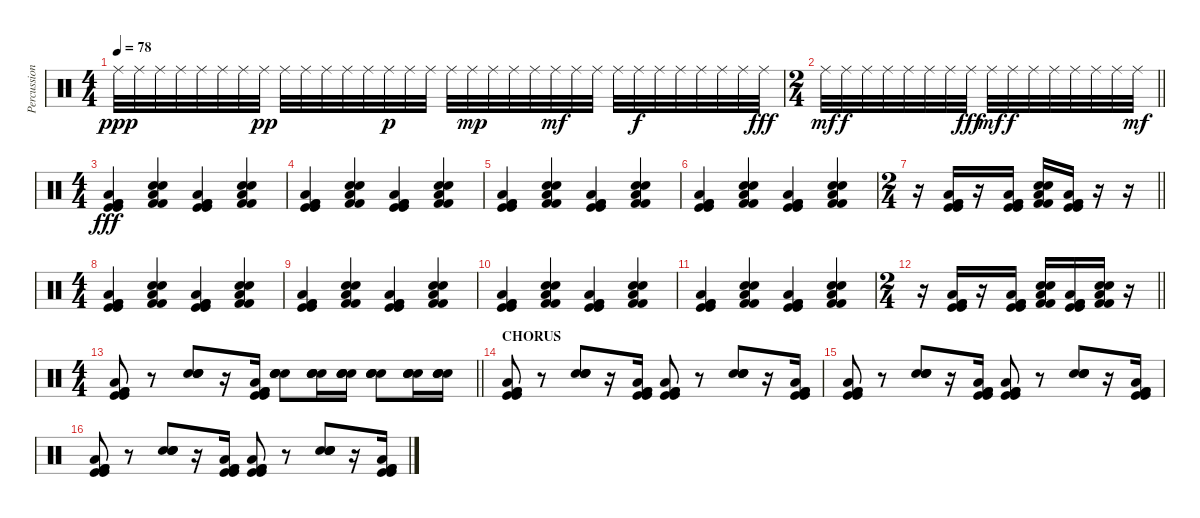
\track ("Percussion" "Percussion") {instrument percussion}
\staff {score}
\articulation defaults
\ts (4 4)
\tempo 78
\clef neutral
\ks c "Ride (middle)".32{dy ppp} "Ride (middle)".32 "Ride (middle)".32 "Ride (middle)".32 "Ride (middle)".32 "Ride (middle)".32 "Ride (middle)".32 "Ride (middle)".32{dy pp} "Ride (middle)".32 "Ride (middle)".32 "Ride (middle)".32 "Ride (middle)".32 "Ride (middle)".32 "Ride (middle)".32{dy p} "Ride (middle)".32 "Ride (middle)".32 "Ride (middle)".32 "Ride (middle)".32{dy mp} "Ride (middle)".32 "Ride (middle)".32 "Ride (middle)".32 "Ride (middle)".32{dy mf} "Ride (middle)".32 "Ride (middle)".32 "Ride (middle)".32 "Ride (middle)".32{dy f} "Ride (middle)".32 "Ride (middle)".32 "Ride (middle)".32 "Ride (middle)".32 "Ride (middle)".32 "Ride (middle)".32{dy fff}
|
\ts (2 4)
\barLineRight lightlight "Ride (middle)".32{dy mf} "Ride (middle)".32{dy f} "Ride (middle)".32 "Ride (middle)".32 "Ride (middle)".32 "Ride (middle)".32 "Ride (middle)".32 "Ride (middle)".32{dy fff} "Ride (middle)".32{dy mf} "Ride (middle)".32{dy f} "Ride (middle)".32 "Ride (middle)".32 "Ride (middle)".32 "Ride (middle)".32 "Ride (middle)".32 "Ride (middle)".32{dy mf}
|
\ts (4 4)
("Kick (hit) 2" "Kick (hit) 2" "Kick (hit)" "Kick (hit)" "Low Floor Tom (hit)").4{dy fff} ("Low Floor Tom (hit)" "Kick (hit) 2" "Kick (hit) 2" "Electric Snare (hit)" "Electric Snare (hit)").4 ("Kick (hit) 2" "Kick (hit) 2" "Kick (hit)" "Kick (hit)" "Low Floor Tom (hit)").4 ("Low Floor Tom (hit)" "Kick (hit) 2" "Kick (hit) 2" "Electric Snare (hit)" "Electric Snare (hit)").4 |
("Kick (hit) 2" "Kick (hit) 2" "Kick (hit)" "Kick (hit)" "Low Floor Tom (hit)").4 ("Low Floor Tom (hit)" "Kick (hit) 2" "Kick (hit) 2" "Electric Snare (hit)" "Electric Snare (hit)").4 ("Kick (hit) 2" "Kick (hit) 2" "Kick (hit)" "Kick (hit)" "Low Floor Tom (hit)").4 ("Low Floor Tom (hit)" "Kick (hit) 2" "Kick (hit) 2" "Electric Snare (hit)" "Electric Snare (hit)").4 |
("Kick (hit) 2" "Kick (hit) 2" "Kick (hit)" "Kick (hit)" "Low Floor Tom (hit)").4 ("Low Floor Tom (hit)" "Kick (hit) 2" "Kick (hit) 2" "Electric Snare (hit)" "Electric Snare (hit)").4 ("Kick (hit) 2" "Kick (hit) 2" "Kick (hit)" "Kick (hit)" "Low Floor Tom (hit)").4 ("Low Floor Tom (hit)" "Kick (hit) 2" "Kick (hit) 2" "Electric Snare (hit)" "Electric Snare (hit)").4 |
("Kick (hit) 2" "Kick (hit) 2" "Kick (hit)" "Kick (hit)" "Low Floor Tom (hit)").4 ("Low Floor Tom (hit)" "Kick (hit) 2" "Kick (hit) 2" "Electric Snare (hit)" "Electric Snare (hit)").4 ("Kick (hit) 2" "Kick (hit) 2" "Kick (hit)" "Kick (hit)" "Low Floor Tom (hit)").4 ("Low Floor Tom (hit)" "Kick (hit) 2" "Kick (hit) 2" "Electric Snare (hit)" "Electric Snare (hit)").4 |
\ts (2 4)
\barLineRight lightlight
r.16 ("Kick (hit) 2" "Kick (hit) 2" "Kick (hit)" "Kick (hit)" "Low Floor Tom (hit)").16 r.16 ("Kick (hit) 2" "Kick (hit) 2" "Kick (hit)" "Kick (hit)" "Low Floor Tom (hit)").16 ("Low Floor Tom (hit)" "Kick (hit) 2" "Kick (hit) 2" "Electric Snare (hit)" "Electric Snare (hit)").16 ("Kick (hit) 2" "Kick (hit) 2" "Kick (hit)" "Kick (hit)" "Low Floor Tom (hit)").16 r.16 r.16 |
\ts (4 4)
("Kick (hit) 2" "Kick (hit) 2" "Kick (hit)" "Kick (hit)" "Low Floor Tom (hit)").4 ("Low Floor Tom (hit)" "Kick (hit) 2" "Kick (hit) 2" "Electric Snare (hit)" "Electric Snare (hit)").4 ("Kick (hit) 2" "Kick (hit) 2" "Kick (hit)" "Kick (hit)" "Low Floor Tom (hit)").4 ("Low Floor Tom (hit)" "Kick (hit) 2" "Kick (hit) 2" "Electric Snare (hit)" "Electric Snare (hit)").4 |
("Kick (hit) 2" "Kick (hit) 2" "Kick (hit)" "Kick (hit)" "Low Floor Tom (hit)").4 ("Low Floor Tom (hit)" "Kick (hit) 2" "Kick (hit) 2" "Electric Snare (hit)" "Electric Snare (hit)").4 ("Kick (hit) 2" "Kick (hit) 2" "Kick (hit)" "Kick (hit)" "Low Floor Tom (hit)").4 ("Low Floor Tom (hit)" "Kick (hit) 2" "Kick (hit) 2" "Electric Snare (hit)" "Electric Snare (hit)").4 |
("Kick (hit) 2" "Kick (hit) 2" "Kick (hit)" "Kick (hit)" "Low Floor Tom (hit)").4 ("Low Floor Tom (hit)" "Kick (hit) 2" "Kick (hit) 2" "Electric Snare (hit)" "Electric Snare (hit)").4 ("Kick (hit) 2" "Kick (hit) 2" "Kick (hit)" "Kick (hit)" "Low Floor Tom (hit)").4 ("Low Floor Tom (hit)" "Kick (hit) 2" "Kick (hit) 2" "Electric Snare (hit)" "Electric Snare (hit)").4 |
("Kick (hit) 2" "Kick (hit) 2" "Kick (hit)" "Kick (hit)" "Low Floor Tom (hit)").4 ("Low Floor Tom (hit)" "Kick (hit) 2" "Kick (hit) 2" "Electric Snare (hit)" "Electric Snare (hit)").4 ("Kick (hit) 2" "Kick (hit) 2" "Kick (hit)" "Kick (hit)" "Low Floor Tom (hit)").4 ("Low Floor Tom (hit)" "Kick (hit) 2" "Kick (hit) 2" "Electric Snare (hit)" "Electric Snare (hit)").4 |
\ts (2 4)
\barLineRight lightlight
r.16 ("Kick (hit) 2" "Kick (hit) 2" "Kick (hit)" "Kick (hit)" "Low Floor Tom (hit)").16 r.16 ("Kick (hit) 2" "Kick (hit) 2" "Kick (hit)" "Kick (hit)" "Low Floor Tom (hit)").16 ("Low Floor Tom (hit)" "Kick (hit) 2" "Kick (hit) 2" "Electric Snare (hit)" "Electric Snare (hit)").16 ("Kick (hit) 2" "Kick (hit) 2" "Kick (hit)" "Kick (hit)" "Low Floor Tom (hit)").16 ("Low Floor Tom (hit)" "Kick (hit) 2" "Kick (hit) 2" "Electric Snare (hit)" "Electric Snare (hit)").16 r.16 |
\ts (4 4)
\barLineRight lightlight
("Kick (hit) 2" "Kick (hit) 2" "Kick (hit)" "Kick (hit)" "Low Floor Tom (hit)").8 r.8 ("Snare (hit) 2" "Snare (hit) 2" "Electric Snare (hit)" "Electric Snare (hit)").8 r.16 ("Kick (hit) 2" "Kick (hit) 2" "Kick (hit)" "Kick (hit)" "Low Floor Tom (hit)").16 ("Snare (hit) 2" "Snare (hit) 2" "Electric Snare (hit)" "Electric Snare (hit)").8 ("Snare (hit) 2" "Snare (hit) 2" "Electric Snare (hit)" "Electric Snare (hit)").16 ("Snare (hit) 2" "Snare (hit) 2" "Electric Snare (hit)" "Electric Snare (hit)").16 ("Snare (hit) 2" "Snare (hit) 2" "Electric Snare (hit)" "Electric Snare (hit)").8 ("Snare (hit) 2" "Snare (hit) 2" "Electric Snare (hit)" "Electric Snare (hit)").16 ("Snare (hit) 2" "Snare (hit) 2" "Electric Snare (hit)" "Electric Snare (hit)").16 |
\section ("" "CHORUS")
("Kick (hit) 2" "Kick (hit) 2" "Kick (hit)" "Kick (hit)" "Low Floor Tom (hit)").8 r.8 ("Snare (hit) 2" "Snare (hit) 2" "Electric Snare (hit)" "Electric Snare (hit)").8 r.16 ("Kick (hit) 2" "Kick (hit) 2" "Kick (hit)" "Kick (hit)" "Low Floor Tom (hit)").16 ("Kick (hit) 2" "Kick (hit) 2" "Kick (hit)" "Kick (hit)" "Low Floor Tom (hit)").8 r.8 ("Snare (hit) 2" "Snare (hit) 2" "Electric Snare (hit)" "Electric Snare (hit)").8 r.16 ("Kick (hit) 2" "Kick (hit) 2" "Kick (hit)" "Kick (hit)" "Low Floor Tom (hit)").16 |
("Kick (hit) 2" "Kick (hit) 2" "Kick (hit)" "Kick (hit)" "Low Floor Tom (hit)").8 r.8 ("Snare (hit) 2" "Snare (hit) 2" "Electric Snare (hit)" "Electric Snare (hit)").8 r.16 ("Kick (hit) 2" "Kick (hit) 2" "Kick (hit)" "Kick (hit)" "Low Floor Tom (hit)").16 ("Kick (hit) 2" "Kick (hit) 2" "Kick (hit)" "Kick (hit)" "Low Floor Tom (hit)").8 r.8 ("Snare (hit) 2" "Snare (hit) 2" "Electric Snare (hit)" "Electric Snare (hit)").8 r.16 ("Kick (hit) 2" "Kick (hit) 2" "Kick (hit)" "Kick (hit)" "Low Floor Tom (hit)").16 |
("Kick (hit) 2" "Kick (hit) 2" "Kick (hit)" "Kick (hit)" "Low Floor Tom (hit)").8 r.8 ("Snare (hit) 2" "Snare (hit) 2" "Electric Snare (hit)" "Electric Snare (hit)").8 r.16 ("Kick (hit) 2" "Kick (hit) 2" "Kick (hit)" "Kick (hit)" "Low Floor Tom (hit)").16 ("Kick (hit) 2" "Kick (hit) 2" "Kick (hit)" "Kick (hit)" "Low Floor Tom (hit)").8 r.8 ("Snare (hit) 2" "Snare (hit) 2" "Electric Snare (hit)" "Electric Snare (hit)").8 r.16 ("Kick (hit) 2" "Kick (hit) 2" "Kick (hit)" "Kick (hit)" "Low Floor Tom (hit)").16
